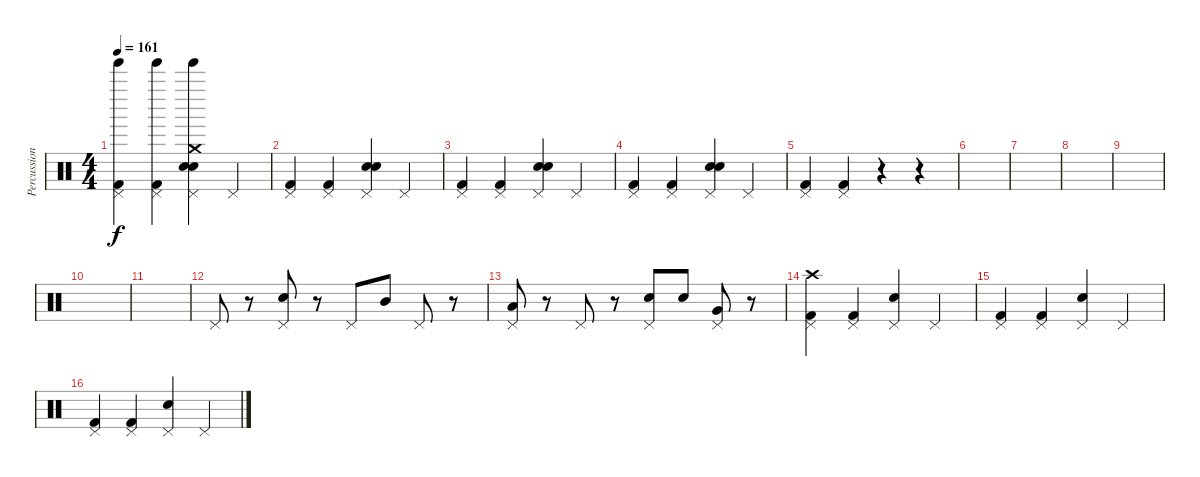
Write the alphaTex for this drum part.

\track ("Percussion" "Percussion") {instrument percussion}
\staff {score}
\articulation defaults
\ts (4 4)
\tempo 161
\clef neutral
\ks c
("Tinkle Bell (hit)" "Pedal Hi-Hat (hit)" "Kick (hit) 2").4{dy f} ("Tinkle Bell (hit)" "Pedal Hi-Hat (hit)" "Kick (hit) 2").4 ("Tinkle Bell (hit)" "Pedal Hi-Hat (hit)" "Crash medium (hit)" "Electric Snare (hit)" "Hand Clap (hit)").4 "Pedal Hi-Hat (hit)".4 |
("Pedal Hi-Hat (hit)" "Kick (hit) 2").4 ("Pedal Hi-Hat (hit)" "Kick (hit) 2").4 ("Pedal Hi-Hat (hit)" "Electric Snare (hit)" "Hand Clap (hit)").4 "Pedal Hi-Hat (hit)".4 |
("Pedal Hi-Hat (hit)" "Kick (hit) 2").4 ("Pedal Hi-Hat (hit)" "Kick (hit) 2").4 ("Pedal Hi-Hat (hit)" "Electric Snare (hit)" "Hand Clap (hit)").4 "Pedal Hi-Hat (hit)".4 |
("Pedal Hi-Hat (hit)" "Kick (hit) 2").4 ("Pedal Hi-Hat (hit)" "Kick (hit) 2").4 ("Pedal Hi-Hat (hit)" "Electric Snare (hit)" "Hand Clap (hit)").4 "Pedal Hi-Hat (hit)".4 |
("Pedal Hi-Hat (hit)" "Kick (hit) 2").4 ("Pedal Hi-Hat (hit)" "Kick (hit) 2").4 r.4 r.4 |
|
|
|
|
|
|
"Pedal Hi-Hat (hit)".8 r.8 ("Pedal Hi-Hat (hit)" "Electric Snare (hit)").8 r.8 "Pedal Hi-Hat (hit)".8 "Mid Tom (hit)".8 "Pedal Hi-Hat (hit)".8 r.8 |
("Pedal Hi-Hat (hit)" "Low Tom (hit)").8 r.8 "Pedal Hi-Hat (hit)".8 r.8 ("Pedal Hi-Hat (hit)" "Electric Snare (hit)").8 "Electric Snare (hit)".8 ("Pedal Hi-Hat (hit)" "Very Low Tom (hit)").8 r.8 |
("Pedal Hi-Hat (hit)" "Crash high (hit)" "Kick (hit) 2").4 ("Pedal Hi-Hat (hit)" "Kick (hit) 2").4 ("Pedal Hi-Hat (hit)" "Electric Snare (hit)").4 "Pedal Hi-Hat (hit)".4 |
("Pedal Hi-Hat (hit)" "Kick (hit) 2").4 ("Pedal Hi-Hat (hit)" "Kick (hit) 2").4 ("Pedal Hi-Hat (hit)" "Electric Snare (hit)").4 "Pedal Hi-Hat (hit)".4 |
("Pedal Hi-Hat (hit)" "Kick (hit) 2").4 ("Pedal Hi-Hat (hit)" "Kick (hit) 2").4 ("Pedal Hi-Hat (hit)" "Electric Snare (hit)").4 "Pedal Hi-Hat (hit)".4
